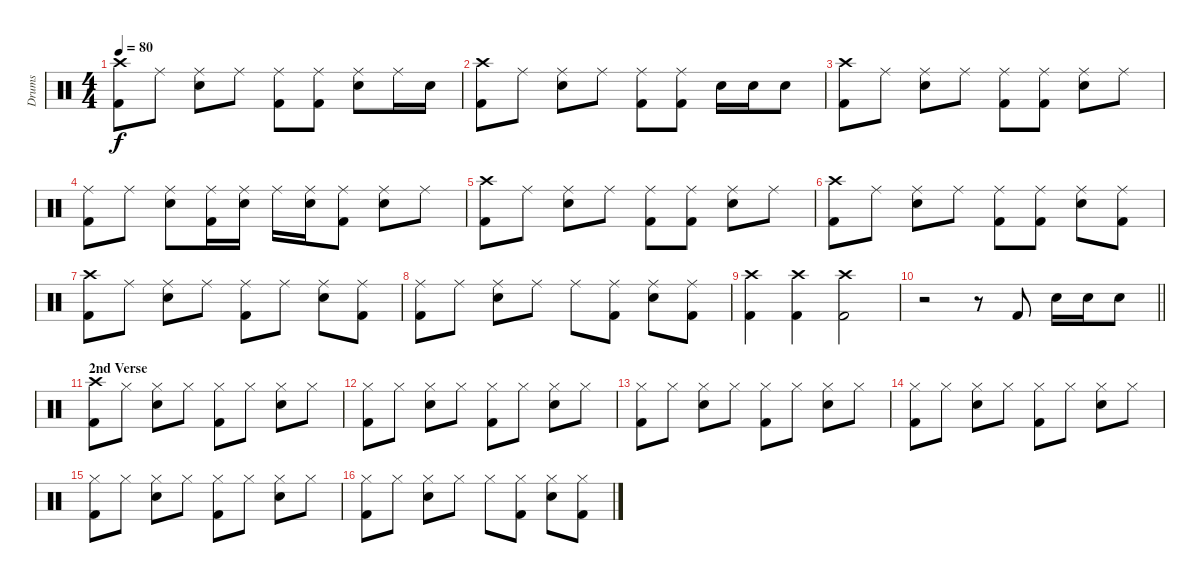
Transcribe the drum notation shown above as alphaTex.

\track ("Drums" "Drums") {instrument percussion}
\staff {score}
\articulation defaults
\ts (4 4)
\tempo 80
\clef neutral
\ks c
("Crash high (hit)" "Kick (hit) 2").8{dy f} "Ride (middle)".8 ("Ride (middle)" "Electric Snare (hit)").8 "Ride (middle)".8 ("Ride (middle)" "Kick (hit) 2").8 ("Ride (middle)" "Kick (hit) 2").8 ("Ride (middle)" "Electric Snare (hit)").8 "Ride (middle)".16 "Electric Snare (hit)".16 |
("Crash high (hit)" "Kick (hit) 2").8 "Ride (middle)".8 ("Ride (middle)" "Electric Snare (hit)").8 "Ride (middle)".8 ("Ride (middle)" "Kick (hit) 2").8 ("Ride (middle)" "Kick (hit) 2").8 "Electric Snare (hit)".16 "Electric Snare (hit)".16 "Electric Snare (hit)".8 |
("Crash high (hit)" "Kick (hit) 2").8 "Ride (middle)".8 ("Ride (middle)" "Electric Snare (hit)").8 "Ride (middle)".8 ("Ride (middle)" "Kick (hit) 2").8 ("Ride (middle)" "Kick (hit) 2").8 ("Ride (middle)" "Electric Snare (hit)").8 "Ride (middle)".8 |
("Ride (middle)" "Kick (hit) 2").8 "Ride (middle)".8 ("Ride (middle)" "Electric Snare (hit)").8 ("Ride (middle)" "Kick (hit) 2").16 ("Ride (middle)" "Electric Snare (hit)").16 "Ride (middle)".16 ("Ride (middle)" "Electric Snare (hit)").16 ("Ride (middle)" "Kick (hit) 2").8 ("Ride (middle)" "Electric Snare (hit)").8 "Ride (middle)".8 |
("Crash high (hit)" "Kick (hit) 2").8 "Ride (middle)".8 ("Ride (middle)" "Electric Snare (hit)").8 "Ride (middle)".8 ("Ride (middle)" "Kick (hit) 2").8 ("Ride (middle)" "Kick (hit) 2").8 ("Ride (middle)" "Electric Snare (hit)").8 "Ride (middle)".8 |
("Crash high (hit)" "Kick (hit) 2").8 "Ride (middle)".8 ("Ride (middle)" "Electric Snare (hit)").8 "Ride (middle)".8 ("Ride (middle)" "Kick (hit) 2").8 ("Ride (middle)" "Kick (hit) 2").8 ("Ride (middle)" "Electric Snare (hit)").8 ("Ride (middle)" "Kick (hit) 2").8 |
("Crash high (hit)" "Kick (hit) 2").8 "Ride (middle)".8 ("Ride (middle)" "Electric Snare (hit)").8 "Ride (middle)".8 ("Ride (middle)" "Kick (hit) 2").8 "Ride (middle)".8 ("Ride (middle)" "Electric Snare (hit)").8 ("Ride (middle)" "Kick (hit) 2").8 |
("Ride (middle)" "Kick (hit) 2").8 "Ride (middle)".8 ("Ride (middle)" "Electric Snare (hit)").8 "Ride (middle)".8 "Ride (middle)".8 ("Ride (middle)" "Kick (hit) 2").8 ("Ride (middle)" "Electric Snare (hit)").8 ("Ride (middle)" "Kick (hit) 2").8 |
("Crash high (hit)" "Kick (hit) 2").4 ("Crash high (hit)" "Kick (hit) 2").4 ("Crash high (hit)" "Kick (hit) 2").2 |
\barLineRight lightlight
r.2 r.8 "Kick (hit) 2".8 "Electric Snare (hit)".16 "Electric Snare (hit)".16 "Electric Snare (hit)".8 |
\section ("" "2nd Verse")
("Crash high (hit)" "Kick (hit) 2").8 "Hi-Hat (closed)".8 ("Hi-Hat (closed)" "Electric Snare (hit)").8 "Hi-Hat (closed)".8 ("Hi-Hat (closed)" "Kick (hit) 2").8 "Hi-Hat (closed)".8 ("Hi-Hat (closed)" "Electric Snare (hit)").8 "Hi-Hat (closed)".8 |
("Hi-Hat (closed)" "Kick (hit) 2").8 "Hi-Hat (closed)".8 ("Hi-Hat (closed)" "Electric Snare (hit)").8 "Hi-Hat (closed)".8 ("Hi-Hat (closed)" "Kick (hit) 2").8 "Hi-Hat (closed)".8 ("Hi-Hat (closed)" "Electric Snare (hit)").8 "Hi-Hat (closed)".8 |
("Hi-Hat (closed)" "Kick (hit) 2").8 "Hi-Hat (closed)".8 ("Hi-Hat (closed)" "Electric Snare (hit)").8 "Hi-Hat (closed)".8 ("Hi-Hat (closed)" "Kick (hit) 2").8 "Hi-Hat (closed)".8 ("Hi-Hat (closed)" "Electric Snare (hit)").8 "Hi-Hat (closed)".8 |
("Hi-Hat (closed)" "Kick (hit) 2").8 "Hi-Hat (closed)".8 ("Hi-Hat (closed)" "Electric Snare (hit)").8 "Hi-Hat (closed)".8 ("Hi-Hat (closed)" "Kick (hit) 2").8 "Hi-Hat (closed)".8 ("Hi-Hat (closed)" "Electric Snare (hit)").8 "Hi-Hat (closed)".8 |
("Hi-Hat (closed)" "Kick (hit) 2").8 "Hi-Hat (closed)".8 ("Hi-Hat (closed)" "Electric Snare (hit)").8 "Hi-Hat (closed)".8 ("Hi-Hat (closed)" "Kick (hit) 2").8 "Hi-Hat (closed)".8 ("Hi-Hat (closed)" "Electric Snare (hit)").8 "Hi-Hat (closed)".8 |
("Hi-Hat (closed)" "Kick (hit) 2").8 "Hi-Hat (closed)".8 ("Hi-Hat (closed)" "Electric Snare (hit)").8 "Hi-Hat (closed)".8 "Hi-Hat (closed)".8 ("Hi-Hat (closed)" "Kick (hit) 2").8 ("Hi-Hat (closed)" "Electric Snare (hit)").8 ("Hi-Hat (closed)" "Kick (hit) 2").8
